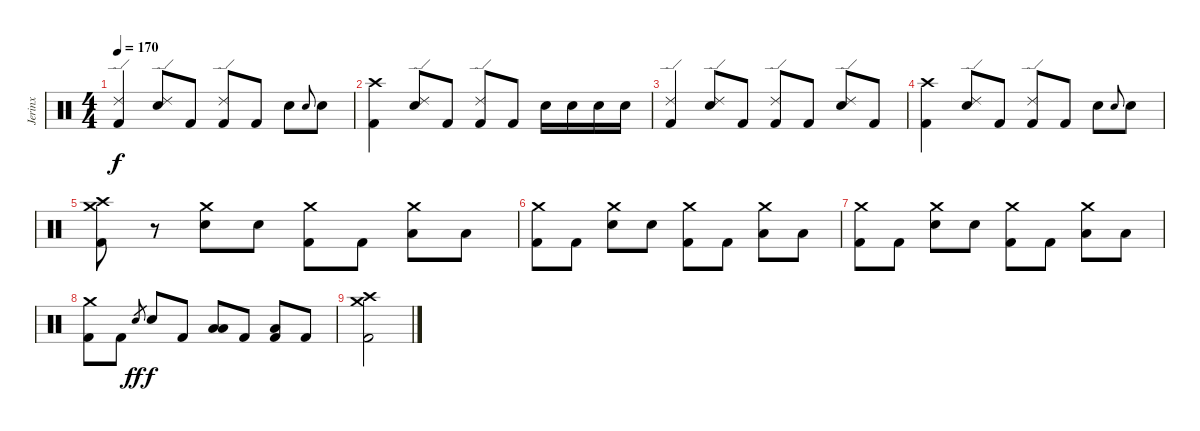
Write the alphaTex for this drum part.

\track ("Jerinx" "Jerinx") {instrument percussion}
\staff {score}
\articulation defaults
\ts (4 4)
\tempo 170
\clef neutral
\ks c
("Kick (hit) 2" "Ride (edge) 2").4{dy f} ("Electric Snare (hit)" "Ride (edge) 2").8 "Kick (hit) 2".8 ("Kick (hit) 2" "Ride (edge) 2").8 "Kick (hit) 2".8 "Electric Snare (hit)".8 "Electric Snare (hit)".8{gr onbeat} "Electric Snare (hit)".8 |
("Kick (hit) 2" "Crash high (hit)").4 ("Electric Snare (hit)" "Ride (edge) 2").8 "Kick (hit) 2".8 ("Kick (hit) 2" "Ride (edge) 2").8 "Kick (hit) 2".8 "Electric Snare (hit)".16 "Electric Snare (hit)".16 "Electric Snare (hit)".16 "Electric Snare (hit)".16 |
("Kick (hit) 2" "Ride (edge) 2").4 ("Electric Snare (hit)" "Ride (edge) 2").8 "Kick (hit) 2".8 ("Kick (hit) 2" "Ride (edge) 2").8 "Kick (hit) 2".8 ("Electric Snare (hit)" "Ride (edge) 2").8 "Kick (hit) 2".8 |
("Kick (hit) 2" "Crash high (hit)").4 ("Electric Snare (hit)" "Ride (edge) 2").8 "Kick (hit) 2".8 ("Kick (hit) 2" "Ride (edge) 2").8 "Kick (hit) 2".8 "Electric Snare (hit)".8 "Electric Snare (hit)".8{gr onbeat} "Electric Snare (hit)".8 |
("Kick (hit) 2" "Crash medium (hit)" "Crash high (hit)").8 r.8 ("Electric Snare (hit)" "Crash medium (hit)").8 "Electric Snare (hit)".8 ("Kick (hit) 2" "Crash medium (hit)").8 "Kick (hit) 2".8 ("Low Tom (hit)" "Crash medium (hit)").8 "Low Tom (hit)".8 |
("Kick (hit) 2" "Crash medium (hit)").8 "Kick (hit) 2".8 ("Electric Snare (hit)" "Crash medium (hit)").8 "Electric Snare (hit)".8 ("Kick (hit) 2" "Crash medium (hit)").8 "Kick (hit) 2".8 ("Low Tom (hit)" "Crash medium (hit)").8 "Low Tom (hit)".8 |
("Kick (hit) 2" "Crash medium (hit)").8 "Kick (hit) 2".8 ("Electric Snare (hit)" "Crash medium (hit)").8 "Electric Snare (hit)".8 ("Kick (hit) 2" "Crash medium (hit)").8 "Kick (hit) 2".8 ("Low Tom (hit)" "Crash medium (hit)").8 "Low Tom (hit)".8 |
("Kick (hit) 2" "Crash medium (hit)").8 "Kick (hit) 2".8 "Electric Snare (hit)".8{gr dy ff} "Electric Snare (hit)".8{dy f} "Kick (hit) 2".8 ("Low Floor Tom (hit)" "Low Tom (hit)").8 "Kick (hit) 2".8 ("Kick (hit) 2" "Low Floor Tom (hit)").8 "Kick (hit) 2".8 |
("Kick (hit) 2" "Crash medium (hit)" "Crash high (hit)").2
